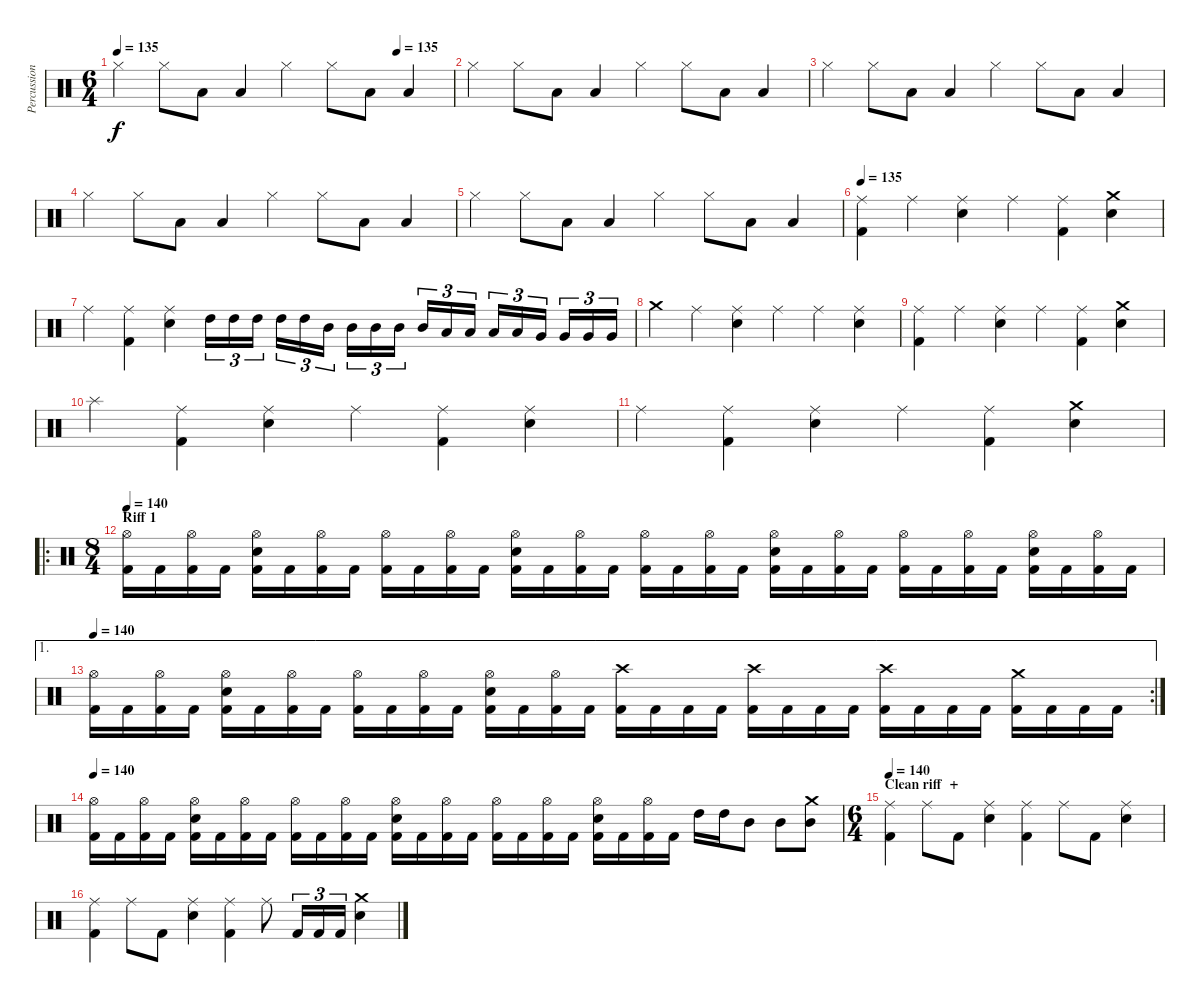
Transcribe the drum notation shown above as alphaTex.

\track ("Percussion" "Percussion") {instrument percussion}
\staff {score}
\articulation defaults
\ts (6 4)
\tempo 135
\tempo (135 0.8333333333333334)
\clef neutral
\ks c "Hi-Hat (closed)".4{dy f} "Hi-Hat (closed)".8 "Low Floor Tom (hit)".8 "Low Floor Tom (hit)".4 "Hi-Hat (closed)".4 "Hi-Hat (closed)".8 "Low Floor Tom (hit)".8 "Low Floor Tom (hit)".4
|
"Hi-Hat (closed)".4 "Hi-Hat (closed)".8 "Low Floor Tom (hit)".8 "Low Floor Tom (hit)".4 "Hi-Hat (closed)".4 "Hi-Hat (closed)".8 "Low Floor Tom (hit)".8 "Low Floor Tom (hit)".4 |
"Hi-Hat (closed)".4 "Hi-Hat (closed)".8 "Low Floor Tom (hit)".8 "Low Floor Tom (hit)".4 "Hi-Hat (closed)".4 "Hi-Hat (closed)".8 "Low Floor Tom (hit)".8 "Low Floor Tom (hit)".4 |
"Hi-Hat (closed)".4 "Hi-Hat (closed)".8 "Low Floor Tom (hit)".8 "Low Floor Tom (hit)".4 "Hi-Hat (closed)".4 "Hi-Hat (closed)".8 "Low Floor Tom (hit)".8 "Low Floor Tom (hit)".4 |
"Hi-Hat (closed)".4 "Hi-Hat (closed)".8 "Low Floor Tom (hit)".8 "Low Floor Tom (hit)".4 "Hi-Hat (closed)".4 "Hi-Hat (closed)".8 "Low Floor Tom (hit)".8 "Low Floor Tom (hit)".4 |
\tempo 135
("Ride (middle)" "Kick (hit) 2").4 "Ride (middle)".4 ("Ride (middle)" "Electric Snare (hit)").4 "Ride (middle)".4 ("Ride (middle)" "Kick (hit) 2").4 ("Crash medium (hit)" "Electric Snare (hit)").4 |
"Ride (middle)".4 ("Ride (middle)" "Kick (hit) 2").4 ("Ride (middle)" "Electric Snare (hit)").4 "High Tom (hit)".16{tu (3 2)} "High Tom (hit)".16{tu (3 2)} "High Tom (hit)".16{tu (3 2)} "High Tom (hit)".16{tu (3 2)} "High Tom (hit)".16{tu (3 2)} "Mid Tom (hit)".16{tu (3 2)} "Mid Tom (hit)".16{tu (3 2)} "Mid Tom (hit)".16{tu (3 2)} "Mid Tom (hit)".16{tu (3 2)} "Mid Tom (hit)".16{tu (3 2)} "Low Tom (hit)".16{tu (3 2)} "Low Tom (hit)".16{tu (3 2)} "Low Tom (hit)".16{tu (3 2)} "Low Tom (hit)".16{tu (3 2)} "Very Low Tom (hit)".16{tu (3 2)} "Very Low Tom (hit)".16{tu (3 2)} "Very Low Tom (hit)".16{tu (3 2)} "Very Low Tom (hit)".16{tu (3 2)} |
"Crash medium (hit)".4 "Ride (middle)".4 ("Ride (middle)" "Electric Snare (hit)").4 "Ride (middle)".4 "Ride (middle)".4 ("Ride (middle)" "Electric Snare (hit)").4 |
("Ride (middle)" "Kick (hit) 2").4 "Ride (middle)".4 ("Ride (middle)" "Electric Snare (hit)").4 "Ride (middle)".4 ("Ride (middle)" "Kick (hit) 2").4 ("Crash medium (hit)" "Electric Snare (hit)").4 |
"Splash (hit)".4 ("Ride (middle)" "Kick (hit) 2").4 ("Ride (middle)" "Electric Snare (hit)").4 "Ride (middle)".4 ("Ride (middle)" "Kick (hit) 2").4 ("Ride (middle)" "Electric Snare (hit)").4 |
"Ride (middle)".4 ("Ride (middle)" "Kick (hit) 2").4 ("Ride (middle)" "Electric Snare (hit)").4 "Ride (middle)".4 ("Ride (middle)" "Kick (hit) 2").4 ("Crash medium (hit)" "Electric Snare (hit)").4 |
\ro
\ts (8 4)
\section ("" "Riff 1")
\tempo 140
("Kick (hit) 2" "Hi-Hat (open)").16 "Kick (hit) 2".16 ("Kick (hit) 2" "Hi-Hat (open)").16 "Kick (hit) 2".16 ("Kick (hit) 2" "Electric Snare (hit)" "Hi-Hat (open)").16 "Kick (hit) 2".16 ("Kick (hit) 2" "Hi-Hat (open)").16 "Kick (hit) 2".16 ("Kick (hit) 2" "Hi-Hat (open)").16 "Kick (hit) 2".16 ("Kick (hit) 2" "Hi-Hat (open)").16 "Kick (hit) 2".16 ("Kick (hit) 2" "Electric Snare (hit)" "Hi-Hat (open)").16 "Kick (hit) 2".16 ("Kick (hit) 2" "Hi-Hat (open)").16 "Kick (hit) 2".16 ("Kick (hit) 2" "Hi-Hat (open)").16 "Kick (hit) 2".16 ("Kick (hit) 2" "Hi-Hat (open)").16 "Kick (hit) 2".16 ("Kick (hit) 2" "Electric Snare (hit)" "Hi-Hat (open)").16 "Kick (hit) 2".16 ("Kick (hit) 2" "Hi-Hat (open)").16 "Kick (hit) 2".16 ("Kick (hit) 2" "Hi-Hat (open)").16 "Kick (hit) 2".16 ("Kick (hit) 2" "Hi-Hat (open)").16 "Kick (hit) 2".16 ("Kick (hit) 2" "Electric Snare (hit)" "Hi-Hat (open)").16 "Kick (hit) 2".16 ("Kick (hit) 2" "Hi-Hat (open)").16 "Kick (hit) 2".16 |
\ae 1
\rc 2
\tempo 140
("Kick (hit) 2" "Hi-Hat (open)").16 "Kick (hit) 2".16 ("Kick (hit) 2" "Hi-Hat (open)").16 "Kick (hit) 2".16 ("Kick (hit) 2" "Electric Snare (hit)" "Hi-Hat (open)").16 "Kick (hit) 2".16 ("Kick (hit) 2" "Hi-Hat (open)").16 "Kick (hit) 2".16 ("Kick (hit) 2" "Hi-Hat (open)").16 "Kick (hit) 2".16 ("Kick (hit) 2" "Hi-Hat (open)").16 "Kick (hit) 2".16 ("Kick (hit) 2" "Electric Snare (hit)" "Hi-Hat (open)").16 "Kick (hit) 2".16 ("Kick (hit) 2" "Hi-Hat (open)").16 "Kick (hit) 2".16 ("Kick (hit) 2" "Crash high (hit)").16 "Kick (hit) 2".16 "Kick (hit) 2".16 "Kick (hit) 2".16 ("Kick (hit) 2" "Crash high (hit)").16 "Kick (hit) 2".16 "Kick (hit) 2".16 "Kick (hit) 2".16 ("Kick (hit) 2" "Crash high (hit)").16 "Kick (hit) 2".16 "Kick (hit) 2".16 "Kick (hit) 2".16 ("Kick (hit) 2" "Crash medium (hit)").16 "Kick (hit) 2".16 "Kick (hit) 2".16 "Kick (hit) 2".16 |
\tempo 140
("Kick (hit) 2" "Hi-Hat (open)").16 "Kick (hit) 2".16 ("Kick (hit) 2" "Hi-Hat (open)").16 "Kick (hit) 2".16 ("Kick (hit) 2" "Electric Snare (hit)" "Hi-Hat (open)").16 "Kick (hit) 2".16 ("Kick (hit) 2" "Hi-Hat (open)").16 "Kick (hit) 2".16 ("Kick (hit) 2" "Hi-Hat (open)").16 "Kick (hit) 2".16 ("Kick (hit) 2" "Hi-Hat (open)").16 "Kick (hit) 2".16 ("Kick (hit) 2" "Electric Snare (hit)" "Hi-Hat (open)").16 "Kick (hit) 2".16 ("Kick (hit) 2" "Hi-Hat (open)").16 "Kick (hit) 2".16 ("Kick (hit) 2" "Hi-Hat (open)").16 "Kick (hit) 2".16 ("Kick (hit) 2" "Hi-Hat (open)").16 "Kick (hit) 2".16 ("Kick (hit) 2" "Electric Snare (hit)" "Hi-Hat (open)").16 "Kick (hit) 2".16 ("Kick (hit) 2" "Hi-Hat (open)").16 "Kick (hit) 2".16 "High Tom (hit)".16 "High Tom (hit)".16 "Mid Tom (hit)".8 "Mid Tom (hit)".8 ("Mid Tom (hit)" "Crash medium (hit)").8 |
\ts (6 4)
\section ("" "Clean riff  +")
\tempo 140
("Ride (middle)" "Kick (hit) 2").4 "Ride (middle)".8 "Kick (hit) 2".8 ("Ride (middle)" "Electric Snare (hit)").4 ("Ride (middle)" "Kick (hit) 2").4 "Ride (middle)".8 "Kick (hit) 2".8 ("Ride (middle)" "Electric Snare (hit)").4 |
("Ride (middle)" "Kick (hit) 2").4 "Ride (middle)".8 "Kick (hit) 2".8 ("Ride (middle)" "Electric Snare (hit)").4 ("Ride (middle)" "Kick (hit) 2").4 "Ride (middle)".8 "Kick (hit) 2".16{tu (3 2)} "Kick (hit) 2".16{tu (3 2)} "Kick (hit) 2".16{tu (3 2)} ("Crash medium (hit)" "Electric Snare (hit)").4
